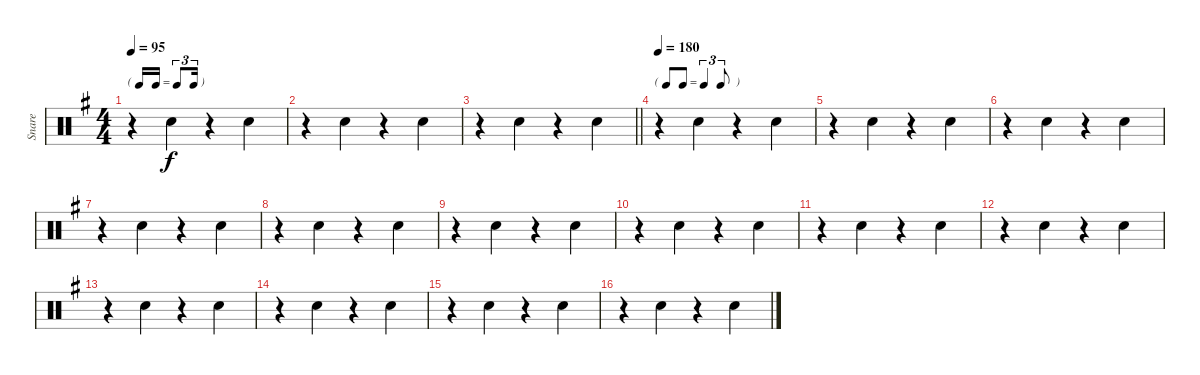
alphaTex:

\track ("Snare" "Snare") {instrument percussion}
\staff {score}
\articulation defaults
\ts (4 4)
\tf triplet16th
\tempo 95
\clef neutral
\ks eminor
r.4{dy f} "Snare (hit) 2".4 r.4 "Snare (hit) 2".4 |
r.4 "Snare (hit) 2".4 r.4 "Snare (hit) 2".4 |
\barLineRight lightlight
r.4 "Snare (hit) 2".4 r.4 "Snare (hit) 2".4 |
\tf triplet8th
\tempo 180
r.4 "Snare (hit) 2".4 r.4 "Snare (hit) 2".4 |
r.4 "Snare (hit) 2".4 r.4 "Snare (hit) 2".4 |
r.4 "Snare (hit) 2".4 r.4 "Snare (hit) 2".4 |
r.4 "Snare (hit) 2".4 r.4 "Snare (hit) 2".4 |
r.4 "Snare (hit) 2".4 r.4 "Snare (hit) 2".4 |
r.4 "Snare (hit) 2".4 r.4 "Snare (hit) 2".4 |
r.4 "Snare (hit) 2".4 r.4 "Snare (hit) 2".4 |
r.4 "Snare (hit) 2".4 r.4 "Snare (hit) 2".4 |
r.4 "Snare (hit) 2".4 r.4 "Snare (hit) 2".4 |
r.4 "Snare (hit) 2".4 r.4 "Snare (hit) 2".4 |
r.4 "Snare (hit) 2".4 r.4 "Snare (hit) 2".4 |
r.4 "Snare (hit) 2".4 r.4 "Snare (hit) 2".4 |
r.4 "Snare (hit) 2".4 r.4 "Snare (hit) 2".4
